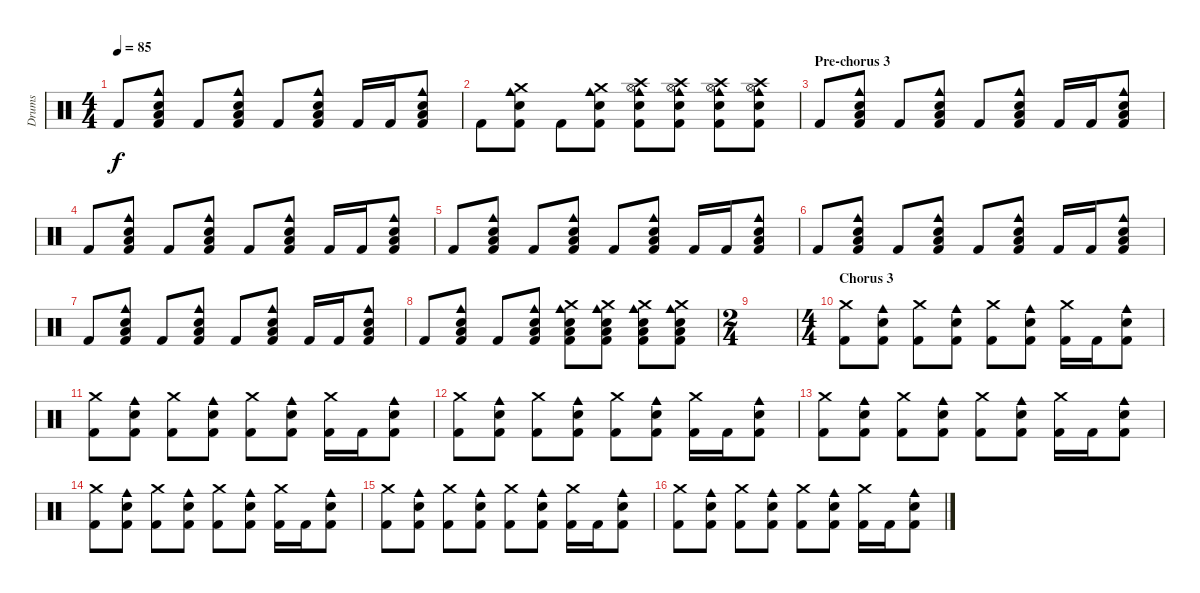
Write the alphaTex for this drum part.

\track ("Drums" "Drums") {instrument percussion}
\staff {score}
\articulation defaults
\ts (4 4)
\tempo 85
\clef neutral
\ks c "Kick (hit) 2".8{dy f}
("Cowbell medium (hit)" "Electric Snare (hit)" "Low Tom (hit)" "Kick (hit) 2").8 "Kick (hit) 2".8 ("Cowbell medium (hit)" "Electric Snare (hit)" "Low Tom (hit)" "Kick (hit) 2").8 "Kick (hit) 2".8 ("Cowbell medium (hit)" "Electric Snare (hit)" "Low Tom (hit)" "Kick (hit) 2").8 "Kick (hit) 2".16 "Kick (hit) 2".16 ("Cowbell medium (hit)" "Electric Snare (hit)" "Low Tom (hit)" "Kick (hit) 2").8 |
"Kick (hit) 2".8 ("Cowbell medium (hit)" "Crash medium (hit)" "Electric Snare (hit)" "Kick (hit) 2").8 "Kick (hit) 2".8 ("Cowbell medium (hit)" "Crash medium (hit)" "Electric Snare (hit)" "Kick (hit) 2").8 ("Cowbell medium (hit)" "Crash high (hit)" "Hi-Hat (open)" "Electric Snare (hit)" "Kick (hit) 2").8 ("Cowbell medium (hit)" "Crash high (hit)" "Hi-Hat (open)" "Electric Snare (hit)" "Kick (hit) 2").8 ("Cowbell medium (hit)" "Crash high (hit)" "Hi-Hat (open)" "Electric Snare (hit)" "Kick (hit) 2").8 ("Cowbell medium (hit)" "Crash high (hit)" "Hi-Hat (open)" "Electric Snare (hit)" "Kick (hit) 2").8 |
\section ("" "Pre-chorus 3")
"Kick (hit) 2".8 ("Cowbell medium (hit)" "Electric Snare (hit)" "Low Tom (hit)" "Kick (hit) 2").8 "Kick (hit) 2".8 ("Cowbell medium (hit)" "Electric Snare (hit)" "Low Tom (hit)" "Kick (hit) 2").8 "Kick (hit) 2".8 ("Cowbell medium (hit)" "Electric Snare (hit)" "Low Tom (hit)" "Kick (hit) 2").8 "Kick (hit) 2".16 "Kick (hit) 2".16 ("Cowbell medium (hit)" "Electric Snare (hit)" "Low Tom (hit)" "Kick (hit) 2").8 |
"Kick (hit) 2".8 ("Cowbell medium (hit)" "Electric Snare (hit)" "Low Tom (hit)" "Kick (hit) 2").8 "Kick (hit) 2".8 ("Cowbell medium (hit)" "Electric Snare (hit)" "Low Tom (hit)" "Kick (hit) 2").8 "Kick (hit) 2".8 ("Cowbell medium (hit)" "Electric Snare (hit)" "Low Tom (hit)" "Kick (hit) 2").8 "Kick (hit) 2".16 "Kick (hit) 2".16 ("Cowbell medium (hit)" "Electric Snare (hit)" "Low Tom (hit)" "Kick (hit) 2").8 |
"Kick (hit) 2".8 ("Cowbell medium (hit)" "Electric Snare (hit)" "Low Tom (hit)" "Kick (hit) 2").8 "Kick (hit) 2".8 ("Cowbell medium (hit)" "Electric Snare (hit)" "Low Tom (hit)" "Kick (hit) 2").8 "Kick (hit) 2".8 ("Cowbell medium (hit)" "Electric Snare (hit)" "Low Tom (hit)" "Kick (hit) 2").8 "Kick (hit) 2".16 "Kick (hit) 2".16 ("Cowbell medium (hit)" "Electric Snare (hit)" "Low Tom (hit)" "Kick (hit) 2").8 |
"Kick (hit) 2".8 ("Cowbell medium (hit)" "Electric Snare (hit)" "Low Tom (hit)" "Kick (hit) 2").8 "Kick (hit) 2".8 ("Cowbell medium (hit)" "Electric Snare (hit)" "Low Tom (hit)" "Kick (hit) 2").8 "Kick (hit) 2".8 ("Cowbell medium (hit)" "Electric Snare (hit)" "Low Tom (hit)" "Kick (hit) 2").8 "Kick (hit) 2".16 "Kick (hit) 2".16 ("Cowbell medium (hit)" "Electric Snare (hit)" "Low Tom (hit)" "Kick (hit) 2").8 |
"Kick (hit) 2".8 ("Cowbell medium (hit)" "Electric Snare (hit)" "Low Tom (hit)" "Kick (hit) 2").8 "Kick (hit) 2".8 ("Cowbell medium (hit)" "Electric Snare (hit)" "Low Tom (hit)" "Kick (hit) 2").8 "Kick (hit) 2".8 ("Cowbell medium (hit)" "Electric Snare (hit)" "Low Tom (hit)" "Kick (hit) 2").8 "Kick (hit) 2".16 "Kick (hit) 2".16 ("Cowbell medium (hit)" "Electric Snare (hit)" "Low Tom (hit)" "Kick (hit) 2").8 |
"Kick (hit) 2".8 ("Cowbell medium (hit)" "Electric Snare (hit)" "Low Tom (hit)" "Kick (hit) 2").8 "Kick (hit) 2".8 ("Cowbell medium (hit)" "Electric Snare (hit)" "Low Tom (hit)" "Kick (hit) 2").8 ("Cowbell medium (hit)" "Crash medium (hit)" "Electric Snare (hit)" "Low Tom (hit)" "Kick (hit) 2").8 ("Cowbell medium (hit)" "Crash medium (hit)" "Electric Snare (hit)" "Low Tom (hit)" "Kick (hit) 2").8 ("Cowbell medium (hit)" "Crash medium (hit)" "Electric Snare (hit)" "Low Tom (hit)" "Kick (hit) 2").8 ("Cowbell medium (hit)" "Crash medium (hit)" "Electric Snare (hit)" "Low Tom (hit)" "Kick (hit) 2").8 |
\ts (2 4)
|
\ts (4 4)
\section ("" "Chorus 3")
("Crash medium (hit)" "Kick (hit) 2").8 ("Cowbell medium (hit)" "Electric Snare (hit)" "Kick (hit) 2").8 ("Crash medium (hit)" "Kick (hit) 2").8 ("Cowbell medium (hit)" "Electric Snare (hit)" "Kick (hit) 2").8 ("Crash medium (hit)" "Kick (hit) 2").8 ("Cowbell medium (hit)" "Electric Snare (hit)" "Kick (hit) 2").8 ("Crash medium (hit)" "Kick (hit) 2").16 "Kick (hit) 2".16 ("Cowbell medium (hit)" "Electric Snare (hit)" "Kick (hit) 2").8 |
("Crash medium (hit)" "Kick (hit) 2").8 ("Cowbell medium (hit)" "Electric Snare (hit)" "Kick (hit) 2").8 ("Crash medium (hit)" "Kick (hit) 2").8 ("Cowbell medium (hit)" "Electric Snare (hit)" "Kick (hit) 2").8 ("Crash medium (hit)" "Kick (hit) 2").8 ("Cowbell medium (hit)" "Electric Snare (hit)" "Kick (hit) 2").8 ("Crash medium (hit)" "Kick (hit) 2").16 "Kick (hit) 2".16 ("Cowbell medium (hit)" "Electric Snare (hit)" "Kick (hit) 2").8 |
("Crash medium (hit)" "Kick (hit) 2").8 ("Cowbell medium (hit)" "Electric Snare (hit)" "Kick (hit) 2").8 ("Crash medium (hit)" "Kick (hit) 2").8 ("Cowbell medium (hit)" "Electric Snare (hit)" "Kick (hit) 2").8 ("Crash medium (hit)" "Kick (hit) 2").8 ("Cowbell medium (hit)" "Electric Snare (hit)" "Kick (hit) 2").8 ("Crash medium (hit)" "Kick (hit) 2").16 "Kick (hit) 2".16 ("Cowbell medium (hit)" "Electric Snare (hit)" "Kick (hit) 2").8 |
("Crash medium (hit)" "Kick (hit) 2").8 ("Cowbell medium (hit)" "Electric Snare (hit)" "Kick (hit) 2").8 ("Crash medium (hit)" "Kick (hit) 2").8 ("Cowbell medium (hit)" "Electric Snare (hit)" "Kick (hit) 2").8 ("Crash medium (hit)" "Kick (hit) 2").8 ("Cowbell medium (hit)" "Electric Snare (hit)" "Kick (hit) 2").8 ("Crash medium (hit)" "Kick (hit) 2").16 "Kick (hit) 2".16 ("Cowbell medium (hit)" "Electric Snare (hit)" "Kick (hit) 2").8 |
("Crash medium (hit)" "Kick (hit) 2").8 ("Cowbell medium (hit)" "Electric Snare (hit)" "Kick (hit) 2").8 ("Crash medium (hit)" "Kick (hit) 2").8 ("Cowbell medium (hit)" "Electric Snare (hit)" "Kick (hit) 2").8 ("Crash medium (hit)" "Kick (hit) 2").8 ("Cowbell medium (hit)" "Electric Snare (hit)" "Kick (hit) 2").8 ("Crash medium (hit)" "Kick (hit) 2").16 "Kick (hit) 2".16 ("Cowbell medium (hit)" "Electric Snare (hit)" "Kick (hit) 2").8 |
("Crash medium (hit)" "Kick (hit) 2").8 ("Cowbell medium (hit)" "Electric Snare (hit)" "Kick (hit) 2").8 ("Crash medium (hit)" "Kick (hit) 2").8 ("Cowbell medium (hit)" "Electric Snare (hit)" "Kick (hit) 2").8 ("Crash medium (hit)" "Kick (hit) 2").8 ("Cowbell medium (hit)" "Electric Snare (hit)" "Kick (hit) 2").8 ("Crash medium (hit)" "Kick (hit) 2").16 "Kick (hit) 2".16 ("Cowbell medium (hit)" "Electric Snare (hit)" "Kick (hit) 2").8 |
("Crash medium (hit)" "Kick (hit) 2").8 ("Cowbell medium (hit)" "Electric Snare (hit)" "Kick (hit) 2").8 ("Crash medium (hit)" "Kick (hit) 2").8 ("Cowbell medium (hit)" "Electric Snare (hit)" "Kick (hit) 2").8 ("Crash medium (hit)" "Kick (hit) 2").8 ("Cowbell medium (hit)" "Electric Snare (hit)" "Kick (hit) 2").8 ("Crash medium (hit)" "Kick (hit) 2").16 "Kick (hit) 2".16 ("Cowbell medium (hit)" "Electric Snare (hit)" "Kick (hit) 2").8
